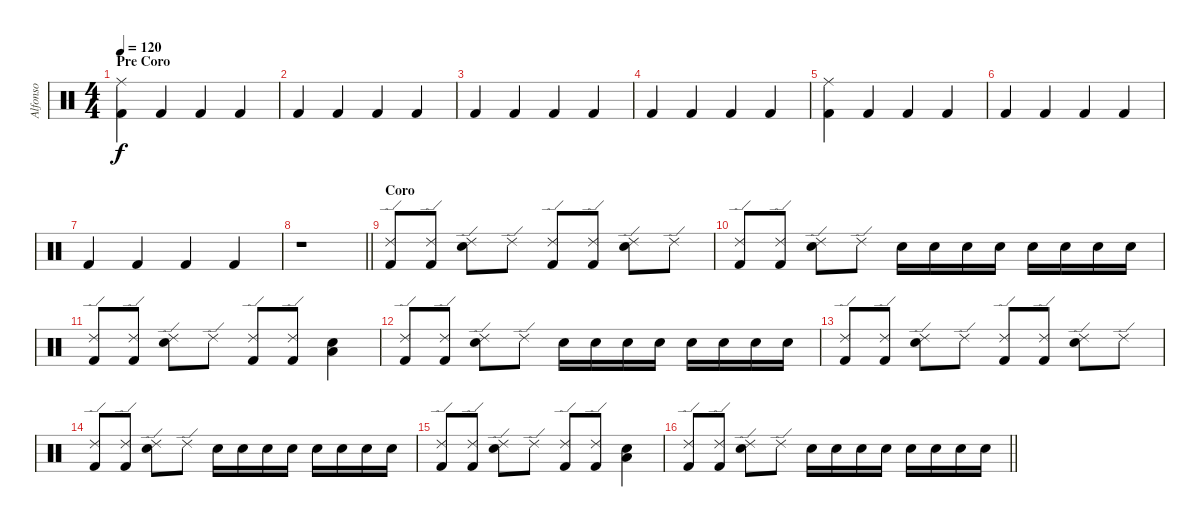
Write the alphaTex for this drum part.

\track ("Alfonso" "Alfonso") {instrument percussion}
\staff {score}
\articulation defaults
\ts (4 4)
\section ("" "Pre Coro")
\tempo 120
\clef neutral
\ks c
("Kick (hit) 2" "Ride (middle)").4{dy f} "Kick (hit) 2".4 "Kick (hit) 2".4 "Kick (hit) 2".4 |
"Kick (hit) 2".4 "Kick (hit) 2".4 "Kick (hit) 2".4 "Kick (hit) 2".4 |
"Kick (hit) 2".4 "Kick (hit) 2".4 "Kick (hit) 2".4 "Kick (hit) 2".4 |
"Kick (hit) 2".4 "Kick (hit) 2".4 "Kick (hit) 2".4 "Kick (hit) 2".4 |
("Kick (hit) 2" "Ride (middle)").4 "Kick (hit) 2".4 "Kick (hit) 2".4 "Kick (hit) 2".4 |
"Kick (hit) 2".4 "Kick (hit) 2".4 "Kick (hit) 2".4 "Kick (hit) 2".4 |
"Kick (hit) 2".4 "Kick (hit) 2".4 "Kick (hit) 2".4 "Kick (hit) 2".4 |
\barLineRight lightlight
r.1 |
\section ("" "Coro")
("Ride (edge) 2" "Kick (hit) 2").8 ("Ride (edge) 2" "Kick (hit) 2").8 ("Ride (edge) 2" "Electric Snare (hit)").8 "Ride (edge) 2".8 ("Ride (edge) 2" "Kick (hit) 2").8 ("Ride (edge) 2" "Kick (hit) 2").8 ("Ride (edge) 2" "Electric Snare (hit)").8 "Ride (edge) 2".8 |
("Ride (edge) 2" "Kick (hit) 2").8 ("Ride (edge) 2" "Kick (hit) 2").8 ("Ride (edge) 2" "Electric Snare (hit)").8 "Ride (edge) 2".8 "Electric Snare (hit)".16 "Electric Snare (hit)".16 "Electric Snare (hit)".16 "Electric Snare (hit)".16 "Electric Snare (hit)".16 "Electric Snare (hit)".16 "Electric Snare (hit)".16 "Electric Snare (hit)".16 |
("Ride (edge) 2" "Kick (hit) 2").8 ("Ride (edge) 2" "Kick (hit) 2").8 ("Ride (edge) 2" "Electric Snare (hit)").8 "Ride (edge) 2".8 ("Ride (edge) 2" "Kick (hit) 2").8 ("Ride (edge) 2" "Kick (hit) 2").8 ("Low Floor Tom (hit)" "Electric Snare (hit)").4 |
("Ride (edge) 2" "Kick (hit) 2").8 ("Ride (edge) 2" "Kick (hit) 2").8 ("Ride (edge) 2" "Electric Snare (hit)").8 "Ride (edge) 2".8 "Electric Snare (hit)".16 "Electric Snare (hit)".16 "Electric Snare (hit)".16 "Electric Snare (hit)".16 "Electric Snare (hit)".16 "Electric Snare (hit)".16 "Electric Snare (hit)".16 "Electric Snare (hit)".16 |
("Ride (edge) 2" "Kick (hit) 2").8 ("Ride (edge) 2" "Kick (hit) 2").8 ("Ride (edge) 2" "Electric Snare (hit)").8 "Ride (edge) 2".8 ("Ride (edge) 2" "Kick (hit) 2").8 ("Ride (edge) 2" "Kick (hit) 2").8 ("Ride (edge) 2" "Electric Snare (hit)").8 "Ride (edge) 2".8 |
("Ride (edge) 2" "Kick (hit) 2").8 ("Ride (edge) 2" "Kick (hit) 2").8 ("Ride (edge) 2" "Electric Snare (hit)").8 "Ride (edge) 2".8 "Electric Snare (hit)".16 "Electric Snare (hit)".16 "Electric Snare (hit)".16 "Electric Snare (hit)".16 "Electric Snare (hit)".16 "Electric Snare (hit)".16 "Electric Snare (hit)".16 "Electric Snare (hit)".16 |
("Ride (edge) 2" "Kick (hit) 2").8 ("Ride (edge) 2" "Kick (hit) 2").8 ("Ride (edge) 2" "Electric Snare (hit)").8 "Ride (edge) 2".8 ("Ride (edge) 2" "Kick (hit) 2").8 ("Ride (edge) 2" "Kick (hit) 2").8 ("Low Floor Tom (hit)" "Electric Snare (hit)").4 |
\barLineRight lightlight
("Ride (edge) 2" "Kick (hit) 2").8 ("Ride (edge) 2" "Kick (hit) 2").8 ("Ride (edge) 2" "Electric Snare (hit)").8 "Ride (edge) 2".8 "Electric Snare (hit)".16 "Electric Snare (hit)".16 "Electric Snare (hit)".16 "Electric Snare (hit)".16 "Electric Snare (hit)".16 "Electric Snare (hit)".16 "Electric Snare (hit)".16 "Electric Snare (hit)".16
